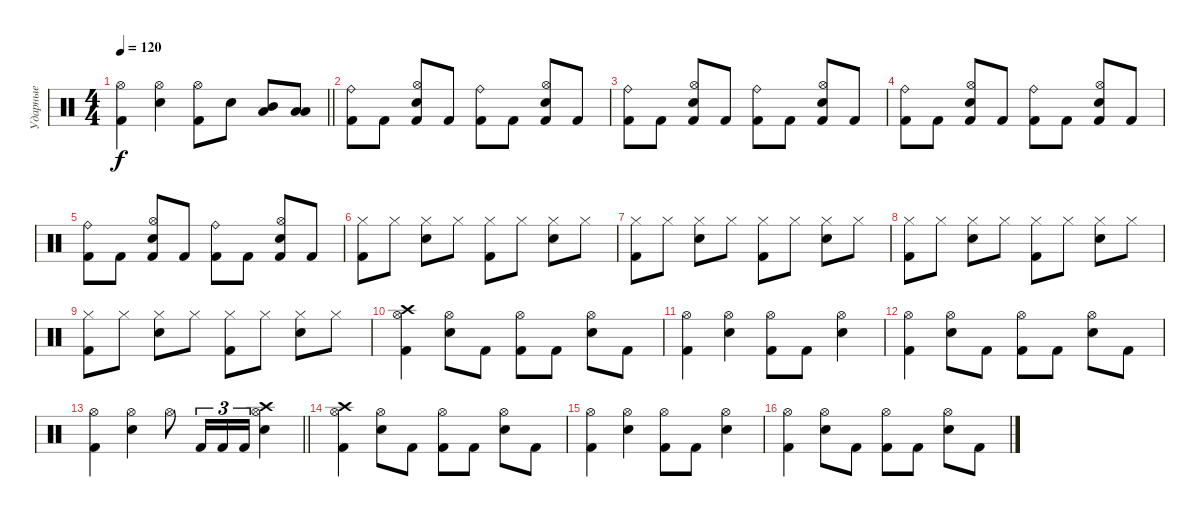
\track ("Ударные" "Ударные") {instrument percussion}
\staff {score}
\articulation defaults
\ts (4 4)
\tempo 120
\clef neutral
\barLineRight lightlight
\ks c
("Kick (hit) 2" "Hi-Hat (open)").4{dy f} ("Snare (hit) 2" "Hi-Hat (open)").4 ("Kick (hit) 2" "Hi-Hat (open)").8 "Snare (hit) 2".8 ("Mid Tom (hit)" "Low Tom (hit)").8 ("Low Tom (hit)" "Low Floor Tom (hit)").8 |
("Ride (bell)" "Kick (hit) 2").8 "Kick (hit) 2".8 ("Snare (hit) 2" "Hi-Hat (open)" "Kick (hit) 2").8 "Kick (hit) 2".8 ("Ride (bell)" "Kick (hit) 2").8 "Kick (hit) 2".8 ("Snare (hit) 2" "Hi-Hat (open)" "Kick (hit) 2").8 "Kick (hit) 2".8 |
("Ride (bell)" "Kick (hit) 2").8 "Kick (hit) 2".8 ("Snare (hit) 2" "Hi-Hat (open)" "Kick (hit) 2").8 "Kick (hit) 2".8 ("Ride (bell)" "Kick (hit) 2").8 "Kick (hit) 2".8 ("Snare (hit) 2" "Hi-Hat (open)" "Kick (hit) 2").8 "Kick (hit) 2".8 |
("Ride (bell)" "Kick (hit) 2").8 "Kick (hit) 2".8 ("Snare (hit) 2" "Hi-Hat (open)" "Kick (hit) 2").8 "Kick (hit) 2".8 ("Ride (bell)" "Kick (hit) 2").8 "Kick (hit) 2".8 ("Snare (hit) 2" "Hi-Hat (open)" "Kick (hit) 2").8 "Kick (hit) 2".8 |
("Ride (bell)" "Kick (hit) 2").8 "Kick (hit) 2".8 ("Snare (hit) 2" "Hi-Hat (open)" "Kick (hit) 2").8 "Kick (hit) 2".8 ("Ride (bell)" "Kick (hit) 2").8 "Kick (hit) 2".8 ("Snare (hit) 2" "Hi-Hat (open)" "Kick (hit) 2").8 "Kick (hit) 2".8 |
("Kick (hit) 2" "Hi-Hat (closed)").8 "Hi-Hat (closed)".8 ("Snare (hit) 2" "Hi-Hat (closed)").8 "Hi-Hat (closed)".8 ("Kick (hit) 2" "Hi-Hat (closed)").8 "Hi-Hat (closed)".8 ("Snare (hit) 2" "Hi-Hat (closed)").8 "Hi-Hat (closed)".8 |
("Kick (hit) 2" "Hi-Hat (closed)").8 "Hi-Hat (closed)".8 ("Snare (hit) 2" "Hi-Hat (closed)").8 "Hi-Hat (closed)".8 ("Kick (hit) 2" "Hi-Hat (closed)").8 "Hi-Hat (closed)".8 ("Snare (hit) 2" "Hi-Hat (closed)").8 "Hi-Hat (closed)".8 |
("Kick (hit) 2" "Hi-Hat (closed)").8 "Hi-Hat (closed)".8 ("Snare (hit) 2" "Hi-Hat (closed)").8 "Hi-Hat (closed)".8 ("Kick (hit) 2" "Hi-Hat (closed)").8 "Hi-Hat (closed)".8 ("Snare (hit) 2" "Hi-Hat (closed)").8 "Hi-Hat (closed)".8 |
("Kick (hit) 2" "Hi-Hat (closed)").8 "Hi-Hat (closed)".8 ("Snare (hit) 2" "Hi-Hat (closed)").8 "Hi-Hat (closed)".8 ("Kick (hit) 2" "Hi-Hat (closed)").8 "Hi-Hat (closed)".8 ("Snare (hit) 2" "Hi-Hat (closed)").8 "Hi-Hat (closed)".8 |
("Kick (hit) 2" "Hi-Hat (open)" "Crash high (hit)").4 ("Snare (hit) 2" "Hi-Hat (open)").8 "Kick (hit) 2".8 ("Kick (hit) 2" "Hi-Hat (open)").8 "Kick (hit) 2".8 ("Snare (hit) 2" "Hi-Hat (open)").8 "Kick (hit) 2".8 |
("Kick (hit) 2" "Hi-Hat (open)").4 ("Snare (hit) 2" "Hi-Hat (open)").4 ("Kick (hit) 2" "Hi-Hat (open)").8 "Kick (hit) 2".8 ("Snare (hit) 2" "Hi-Hat (open)").4 |
("Kick (hit) 2" "Hi-Hat (open)").4 ("Snare (hit) 2" "Hi-Hat (open)").8 "Kick (hit) 2".8 ("Kick (hit) 2" "Hi-Hat (open)").8 "Kick (hit) 2".8 ("Snare (hit) 2" "Hi-Hat (open)").8 "Kick (hit) 2".8 |
\barLineRight lightlight
("Kick (hit) 2" "Hi-Hat (open)").4 ("Snare (hit) 2" "Hi-Hat (open)").4 "Hi-Hat (open)".8 "Kick (hit) 2".16{tu (3 2)} "Kick (hit) 2".16{tu (3 2)} "Kick (hit) 2".16{tu (3 2)} ("Snare (hit) 2" "Hi-Hat (open)" "Crash high (hit)").4 |
("Kick (hit) 2" "Hi-Hat (open)" "Crash high (hit)").4 ("Snare (hit) 2" "Hi-Hat (open)").8 "Kick (hit) 2".8 ("Kick (hit) 2" "Hi-Hat (open)").8 "Kick (hit) 2".8 ("Snare (hit) 2" "Hi-Hat (open)").8 "Kick (hit) 2".8 |
("Kick (hit) 2" "Hi-Hat (open)").4 ("Snare (hit) 2" "Hi-Hat (open)").4 ("Kick (hit) 2" "Hi-Hat (open)").8 "Kick (hit) 2".8 ("Snare (hit) 2" "Hi-Hat (open)").4 |
("Kick (hit) 2" "Hi-Hat (open)").4 ("Snare (hit) 2" "Hi-Hat (open)").8 "Kick (hit) 2".8 ("Kick (hit) 2" "Hi-Hat (open)").8 "Kick (hit) 2".8 ("Snare (hit) 2" "Hi-Hat (open)").8 "Kick (hit) 2".8
